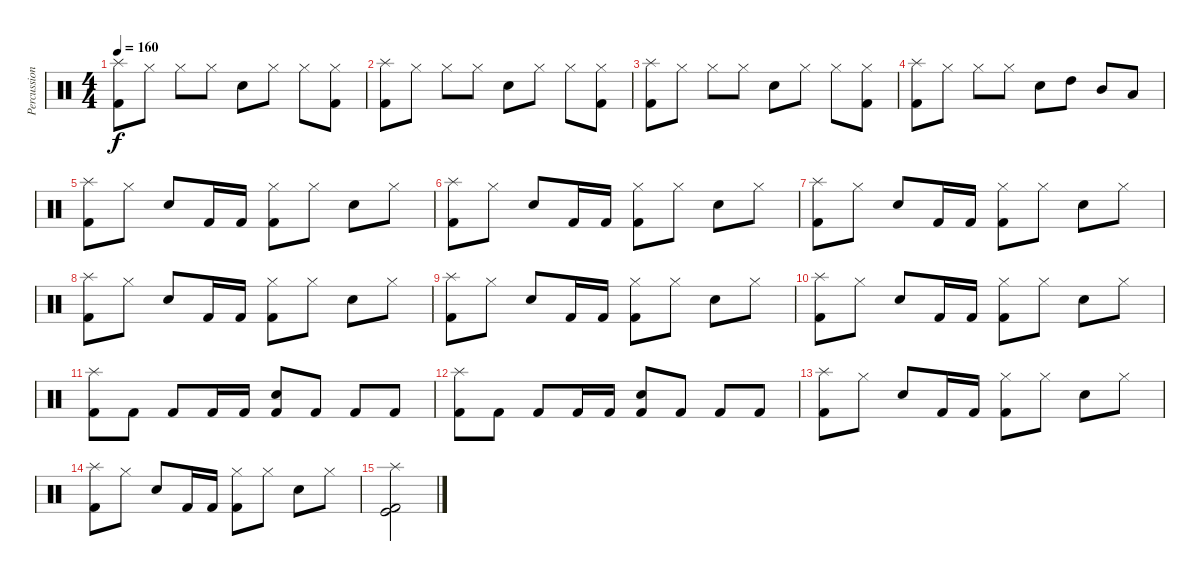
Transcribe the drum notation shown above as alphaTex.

\track ("Percussion" "Percussion") {instrument percussion}
\staff {score}
\articulation defaults
\ts (4 4)
\tempo 160
\clef neutral
\ks c
("Splash (hit)" "Kick (hit) 2").8{dy f} "Hi-Hat (closed)".8 "Hi-Hat (closed)".8 "Hi-Hat (closed)".8 "Snare (hit) 2".8 "Hi-Hat (closed)".8 "Hi-Hat (closed)".8 ("Hi-Hat (closed)" "Kick (hit) 2").8 |
("Splash (hit)" "Kick (hit) 2").8 "Hi-Hat (closed)".8 "Hi-Hat (closed)".8 "Hi-Hat (closed)".8 "Snare (hit) 2".8 "Hi-Hat (closed)".8 "Hi-Hat (closed)".8 ("Hi-Hat (closed)" "Kick (hit) 2").8 |
("Splash (hit)" "Kick (hit) 2").8 "Hi-Hat (closed)".8 "Hi-Hat (closed)".8 "Hi-Hat (closed)".8 "Snare (hit) 2".8 "Hi-Hat (closed)".8 "Hi-Hat (closed)".8 ("Hi-Hat (closed)" "Kick (hit) 2").8 |
("Splash (hit)" "Kick (hit) 2").8 "Hi-Hat (closed)".8 "Hi-Hat (closed)".8 "Hi-Hat (closed)".8 "Snare (hit) 2".8 "High Tom (hit)".8 "Mid Tom (hit)".8 "Low Tom (hit)".8 |
("Splash (hit)" "Kick (hit) 2").8 "Hi-Hat (closed)".8 "Snare (hit) 2".8 "Kick (hit) 2".16 "Kick (hit) 2".16 ("Hi-Hat (closed)" "Kick (hit) 2").8 "Hi-Hat (closed)".8 "Snare (hit) 2".8 "Hi-Hat (closed)".8 |
("Splash (hit)" "Kick (hit) 2").8 "Hi-Hat (closed)".8 "Snare (hit) 2".8 "Kick (hit) 2".16 "Kick (hit) 2".16 ("Hi-Hat (closed)" "Kick (hit) 2").8 "Hi-Hat (closed)".8 "Snare (hit) 2".8 "Hi-Hat (closed)".8 |
("Splash (hit)" "Kick (hit) 2").8 "Hi-Hat (closed)".8 "Snare (hit) 2".8 "Kick (hit) 2".16 "Kick (hit) 2".16 ("Hi-Hat (closed)" "Kick (hit) 2").8 "Hi-Hat (closed)".8 "Snare (hit) 2".8 "Hi-Hat (closed)".8 |
("Splash (hit)" "Kick (hit) 2").8 "Hi-Hat (closed)".8 "Snare (hit) 2".8 "Kick (hit) 2".16 "Kick (hit) 2".16 ("Hi-Hat (closed)" "Kick (hit) 2").8 "Hi-Hat (closed)".8 "Snare (hit) 2".8 "Hi-Hat (closed)".8 |
("Splash (hit)" "Kick (hit) 2").8 "Hi-Hat (closed)".8 "Snare (hit) 2".8 "Kick (hit) 2".16 "Kick (hit) 2".16 ("Hi-Hat (closed)" "Kick (hit) 2").8 "Hi-Hat (closed)".8 "Snare (hit) 2".8 "Hi-Hat (closed)".8 |
("Splash (hit)" "Kick (hit) 2").8 "Hi-Hat (closed)".8 "Snare (hit) 2".8 "Kick (hit) 2".16 "Kick (hit) 2".16 ("Hi-Hat (closed)" "Kick (hit) 2").8 "Hi-Hat (closed)".8 "Snare (hit) 2".8 "Hi-Hat (closed)".8 |
("Splash (hit)" "Kick (hit) 2").8 "Kick (hit) 2".8 "Kick (hit) 2".8 "Kick (hit) 2".16 "Kick (hit) 2".16 ("Snare (hit) 2" "Kick (hit) 2").8 "Kick (hit) 2".8 "Kick (hit) 2".8 "Kick (hit) 2".8 |
("Splash (hit)" "Kick (hit) 2").8 "Kick (hit) 2".8 "Kick (hit) 2".8 "Kick (hit) 2".16 "Kick (hit) 2".16 ("Snare (hit) 2" "Kick (hit) 2").8 "Kick (hit) 2".8 "Kick (hit) 2".8 "Kick (hit) 2".8 |
("Splash (hit)" "Kick (hit) 2").8 "Hi-Hat (closed)".8 "Snare (hit) 2".8 "Kick (hit) 2".16 "Kick (hit) 2".16 ("Hi-Hat (closed)" "Kick (hit) 2").8 "Hi-Hat (closed)".8 "Snare (hit) 2".8 "Hi-Hat (closed)".8 |
("Splash (hit)" "Kick (hit) 2").8 "Hi-Hat (closed)".8 "Snare (hit) 2".8 "Kick (hit) 2".16 "Kick (hit) 2".16 ("Hi-Hat (closed)" "Kick (hit) 2").8 "Hi-Hat (closed)".8 "Snare (hit) 2".8 "Hi-Hat (closed)".8 |
("Splash (hit)" "Kick (hit)" "Kick (hit) 2").2
